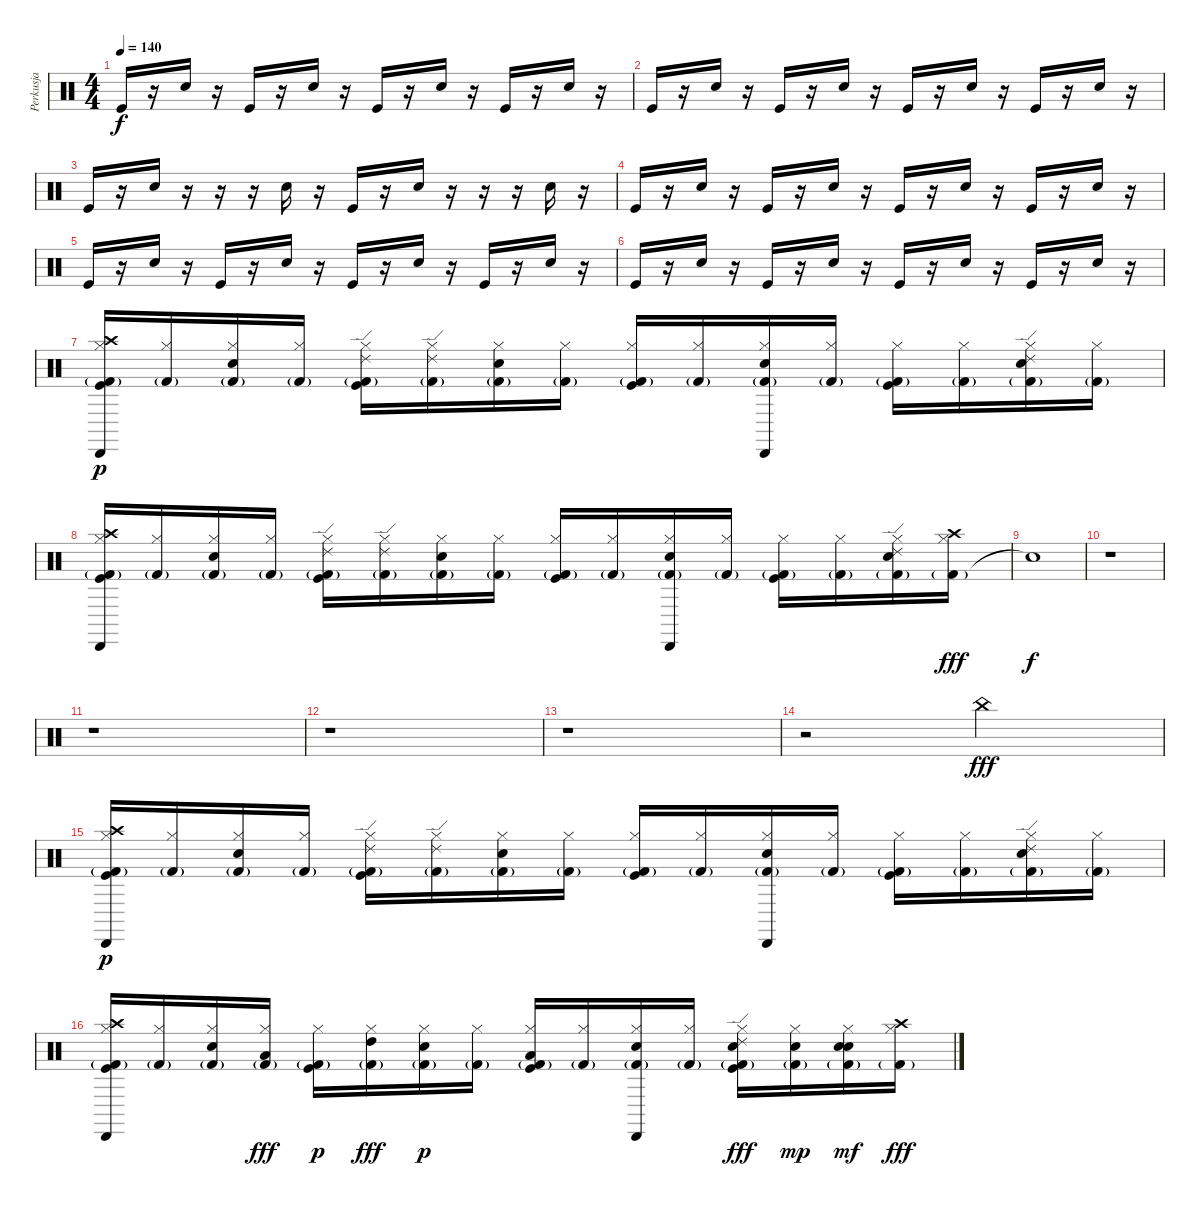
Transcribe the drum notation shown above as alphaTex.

\track ("Perkusja" "Perkusja") {instrument percussion}
\staff {score}
\articulation defaults
\ts (4 4)
\tempo 140
\clef neutral
\ks c "Kick (hit)".16{dy f}
r.16 "Snare (hit) 2".16 r.16 "Kick (hit)".16 r.16 "Snare (hit) 2".16 r.16 "Kick (hit)".16 r.16 "Snare (hit) 2".16 r.16 "Kick (hit)".16 r.16 "Snare (hit) 2".16 r.16 |
"Kick (hit)".16 r.16 "Snare (hit) 2".16 r.16 "Kick (hit)".16 r.16 "Snare (hit) 2".16 r.16 "Kick (hit)".16 r.16 "Snare (hit) 2".16 r.16 "Kick (hit)".16 r.16 "Snare (hit) 2".16 r.16 |
"Kick (hit)".16 r.16 "Snare (hit) 2".16 r.16 r.16 r.16 "Snare (hit) 2".16 r.16 "Kick (hit)".16 r.16 "Snare (hit) 2".16 r.16 r.16 r.16 "Snare (hit) 2".16 r.16 |
"Kick (hit)".16 r.16 "Snare (hit) 2".16 r.16 "Kick (hit)".16 r.16 "Snare (hit) 2".16 r.16 "Kick (hit)".16 r.16 "Snare (hit) 2".16 r.16 "Kick (hit)".16 r.16 "Snare (hit) 2".16 r.16 |
"Kick (hit)".16 r.16 "Snare (hit) 2".16 r.16 "Kick (hit)".16 r.16 "Snare (hit) 2".16 r.16 "Kick (hit)".16 r.16 "Snare (hit) 2".16 r.16 "Kick (hit)".16 r.16 "Snare (hit) 2".16 r.16 |
"Kick (hit)".16 r.16 "Snare (hit) 2".16 r.16 "Kick (hit)".16 r.16 "Snare (hit) 2".16 r.16 "Kick (hit)".16 r.16 "Snare (hit) 2".16 r.16 "Kick (hit)".16 r.16 "Snare (hit) 2".16 r.16 |
("Kick (hit) 2"{g} "Kick (hit)" "Hi-Hat (closed)" "Crash high (hit)" "Cabasa (hit)").16{dy p} ("Kick (hit) 2"{g} "Hi-Hat (closed)").16 ("Kick (hit) 2"{g} "Snare (hit) 2" "Hi-Hat (closed)").16 ("Kick (hit) 2"{g} "Hi-Hat (closed)").16 ("Kick (hit) 2"{g} "Kick (hit)" "Hi-Hat (closed)" "Ride (edge) 2").16 ("Kick (hit) 2"{g} "Hi-Hat (closed)" "Ride (edge) 2").16 ("Kick (hit) 2"{g} "Snare (hit) 2" "Hi-Hat (closed)").16 ("Kick (hit) 2"{g} "Hi-Hat (closed)").16 ("Kick (hit) 2"{g} "Kick (hit)" "Hi-Hat (closed)").16 ("Kick (hit) 2"{g} "Hi-Hat (closed)").16 ("Kick (hit) 2"{g} "Snare (hit) 2" "Hi-Hat (closed)" "Cabasa (hit)").16 ("Kick (hit) 2"{g} "Hi-Hat (closed)").16 ("Kick (hit) 2"{g} "Kick (hit)" "Hi-Hat (closed)").16 ("Kick (hit) 2"{g} "Hi-Hat (closed)").16 ("Kick (hit) 2"{g} "Snare (hit) 2" "Hi-Hat (closed)" "Ride (edge) 2").16 ("Kick (hit) 2"{g} "Hi-Hat (closed)").16 |
("Kick (hit) 2"{g} "Kick (hit)" "Hi-Hat (closed)" "Crash high (hit)" "Cabasa (hit)").16 ("Kick (hit) 2"{g} "Hi-Hat (closed)").16 ("Kick (hit) 2"{g} "Snare (hit) 2" "Hi-Hat (closed)").16 ("Kick (hit) 2"{g} "Hi-Hat (closed)").16 ("Kick (hit) 2"{g} "Kick (hit)" "Hi-Hat (closed)" "Ride (edge) 2").16 ("Kick (hit) 2"{g} "Hi-Hat (closed)" "Ride (edge) 2").16 ("Kick (hit) 2"{g} "Snare (hit) 2" "Hi-Hat (closed)").16 ("Kick (hit) 2"{g} "Hi-Hat (closed)").16 ("Kick (hit) 2"{g} "Kick (hit)" "Hi-Hat (closed)").16 ("Kick (hit) 2"{g} "Hi-Hat (closed)").16 ("Kick (hit) 2"{g} "Snare (hit) 2" "Hi-Hat (closed)" "Cabasa (hit)").16 ("Kick (hit) 2"{g} "Hi-Hat (closed)").16 ("Kick (hit) 2"{g} "Kick (hit)" "Hi-Hat (closed)").16 ("Kick (hit) 2"{g} "Hi-Hat (closed)").16 ("Kick (hit) 2"{g} "Snare (hit) 2" "Hi-Hat (closed)" "Ride (edge) 2").16 ("Kick (hit) 2"{g} "Hi-Hat (closed)" "Crash high (hit)").16{dy fff} |
"Snare (hit)"{t}.1{dy f} |
r.1 |
r.1 |
r.1 |
r.1 |
r.2 "China (hit)".2{dy fff} |
("Kick (hit) 2"{g} "Kick (hit)" "Hi-Hat (closed)" "Crash high (hit)" "Cabasa (hit)").16{dy p} ("Kick (hit) 2"{g} "Hi-Hat (closed)").16 ("Kick (hit) 2"{g} "Snare (hit) 2" "Hi-Hat (closed)").16 ("Kick (hit) 2"{g} "Hi-Hat (closed)").16 ("Kick (hit) 2"{g} "Kick (hit)" "Hi-Hat (closed)" "Ride (edge) 2").16 ("Kick (hit) 2"{g} "Hi-Hat (closed)" "Ride (edge) 2").16 ("Kick (hit) 2"{g} "Snare (hit) 2" "Hi-Hat (closed)").16 ("Kick (hit) 2"{g} "Hi-Hat (closed)").16 ("Kick (hit) 2"{g} "Kick (hit)" "Hi-Hat (closed)").16 ("Kick (hit) 2"{g} "Hi-Hat (closed)").16 ("Kick (hit) 2"{g} "Snare (hit) 2" "Hi-Hat (closed)" "Cabasa (hit)").16 ("Kick (hit) 2"{g} "Hi-Hat (closed)").16 ("Kick (hit) 2"{g} "Kick (hit)" "Hi-Hat (closed)").16 ("Kick (hit) 2"{g} "Hi-Hat (closed)").16 ("Kick (hit) 2"{g} "Snare (hit) 2" "Hi-Hat (closed)" "Ride (edge) 2").16 ("Kick (hit) 2"{g} "Hi-Hat (closed)").16 |
("Kick (hit) 2"{g} "Kick (hit)" "Hi-Hat (closed)" "Crash high (hit)" "Cabasa (hit)").16 ("Kick (hit) 2"{g} "Hi-Hat (closed)").16 ("Kick (hit) 2"{g} "Snare (hit) 2" "Hi-Hat (closed)").16 ("Kick (hit) 2"{g} "Hi-Hat (closed)" "Low Tom (hit)").16{dy fff} ("Kick (hit) 2"{g} "Kick (hit)" "Hi-Hat (closed)").16{dy p} ("Kick (hit) 2"{g} "Hi-Hat (closed)" "High Tom (hit)").16{dy fff} ("Kick (hit) 2"{g} "Snare (hit) 2" "Hi-Hat (closed)").16{dy p} ("Kick (hit) 2"{g} "Hi-Hat (closed)").16 ("Kick (hit) 2"{g} "Kick (hit)" "Hi-Hat (closed)" "Low Tom (hit)").16 ("Kick (hit) 2"{g} "Hi-Hat (closed)").16 ("Kick (hit) 2"{g} "Snare (hit) 2" "Hi-Hat (closed)" "Cabasa (hit)").16 ("Kick (hit) 2"{g} "Hi-Hat (closed)").16 ("Kick (hit) 2"{g} "Kick (hit)" "Hi-Hat (closed)" "Electric Snare (hit)" "Ride (edge) 2").16{dy fff} ("Kick (hit) 2"{g} "Hi-Hat (closed)" "Electric Snare (hit)").16{dy mp} ("Kick (hit) 2"{g} "Snare (hit) 2" "Hi-Hat (closed)" "Electric Snare (hit)").16{dy mf} ("Kick (hit) 2"{g} "Hi-Hat (closed)" "Crash high (hit)").16{dy fff}
